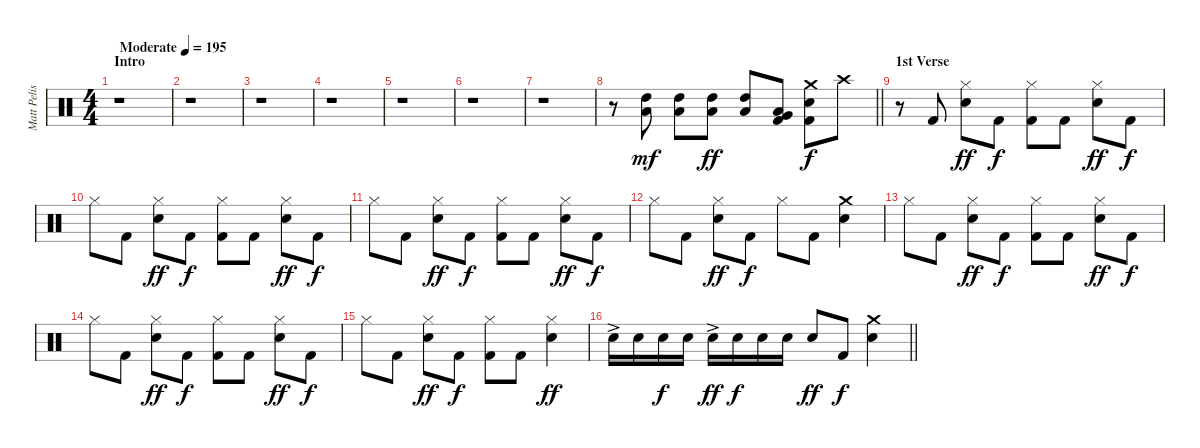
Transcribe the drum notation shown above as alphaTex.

\track ("Matt Pelissier" "Matt Pelis") {instrument percussion}
\staff {score}
\articulation defaults
\ts (4 4)
\section ("" "Intro")
\tempo (195 "Moderate")
\clef neutral
\ks c
r.1{dy mf} |
r.1 |
r.1 |
r.1 |
r.1 |
r.1 |
r.1 |
\barLineRight lightlight
r.8 ("High Tom (hit)" "Low Tom (hit)").8 ("High Tom (hit)" "Low Tom (hit)").8 ("High Tom (hit)" "Low Tom (hit)").8{dy ff} ("High Tom (hit)" "Low Tom (hit)").8 ("Low Tom (hit)" "Very Low Tom (hit)" "Kick (hit) 2").8 ("Crash medium (hit)" "Snare (hit) 2" "Kick (hit) 2").8{dy f} "Crash high (hit)".8 |
\section ("" "1st Verse")
r.8 "Kick (hit) 2".8 ("Hi-Hat (closed)" "Snare (hit) 2").8{dy ff} "Kick (hit) 2".8{dy f} ("Hi-Hat (closed)" "Kick (hit) 2").8 "Kick (hit) 2".8 ("Hi-Hat (closed)" "Snare (hit) 2").8{dy ff} "Kick (hit) 2".8{dy f} |
"Hi-Hat (closed)".8 "Kick (hit) 2".8 ("Hi-Hat (closed)" "Snare (hit) 2").8{dy ff} "Kick (hit) 2".8{dy f} ("Hi-Hat (closed)" "Kick (hit) 2").8 "Kick (hit) 2".8 ("Hi-Hat (closed)" "Snare (hit) 2").8{dy ff} "Kick (hit) 2".8{dy f} |
"Hi-Hat (closed)".8 "Kick (hit) 2".8 ("Hi-Hat (closed)" "Snare (hit) 2").8{dy ff} "Kick (hit) 2".8{dy f} ("Hi-Hat (closed)" "Kick (hit) 2").8 "Kick (hit) 2".8 ("Hi-Hat (closed)" "Snare (hit) 2").8{dy ff} "Kick (hit) 2".8{dy f} |
"Hi-Hat (closed)".8 "Kick (hit) 2".8 ("Hi-Hat (closed)" "Snare (hit) 2").8{dy ff} "Kick (hit) 2".8{dy f} "Hi-Hat (closed)".8 "Kick (hit) 2".8 ("Crash medium (hit)" "Snare (hit) 2").4 |
"Hi-Hat (closed)".8 "Kick (hit) 2".8 ("Hi-Hat (closed)" "Snare (hit) 2").8{dy ff} "Kick (hit) 2".8{dy f} ("Hi-Hat (closed)" "Kick (hit) 2").8 "Kick (hit) 2".8 ("Hi-Hat (closed)" "Snare (hit) 2").8{dy ff} "Kick (hit) 2".8{dy f} |
"Hi-Hat (closed)".8 "Kick (hit) 2".8 ("Hi-Hat (closed)" "Snare (hit) 2").8{dy ff} "Kick (hit) 2".8{dy f} ("Hi-Hat (closed)" "Kick (hit) 2").8 "Kick (hit) 2".8 ("Hi-Hat (closed)" "Snare (hit) 2").8{dy ff} "Kick (hit) 2".8{dy f} |
"Hi-Hat (closed)".8 "Kick (hit) 2".8 ("Hi-Hat (closed)" "Snare (hit) 2").8{dy ff} "Kick (hit) 2".8{dy f} ("Hi-Hat (closed)" "Kick (hit) 2").8 "Kick (hit) 2".8 ("Hi-Hat (closed)" "Snare (hit) 2").4{dy ff} |
\barLineRight lightlight "Snare (hit) 2"{ac}.16 "Snare (hit) 2".16 "Snare (hit) 2".16{dy f} "Snare (hit) 2".16 "Snare (hit) 2"{ac}.16{dy ff} "Snare (hit) 2".16{dy f} "Snare (hit) 2".16 "Snare (hit) 2".16 "Snare (hit) 2".8{dy ff} "Kick (hit) 2".8{dy f}
("Crash medium (hit)" "Snare (hit) 2").4
